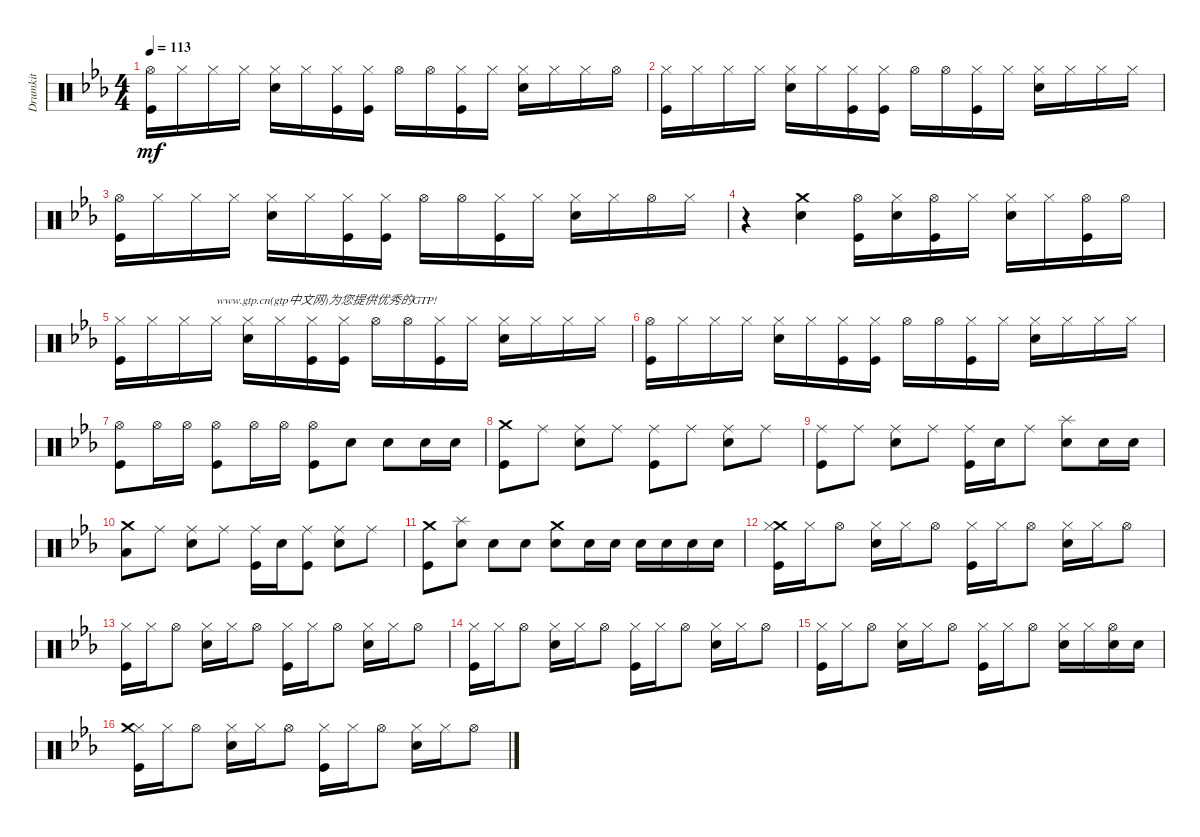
\track ("Drumkit" "Drumkit") {instrument percussion}
\staff {score}
\articulation defaults
\ts (4 4)
\tempo 113
\clef neutral
\ks eb
("Hi-Hat (open)" "Kick (hit)").16{dy mf} "Hi-Hat (closed)".16 "Hi-Hat (closed)".16 "Hi-Hat (closed)".16 ("Hi-Hat (closed)" "Snare (hit) 2").16 "Hi-Hat (closed)".16 ("Hi-Hat (closed)" "Kick (hit)").16 ("Hi-Hat (closed)" "Kick (hit)").16 "Hi-Hat (open)".16 "Hi-Hat (open)".16 ("Hi-Hat (closed)" "Kick (hit)").16 "Hi-Hat (closed)".16 ("Hi-Hat (closed)" "Snare (hit) 2").16 "Hi-Hat (closed)".16 "Hi-Hat (closed)".16 "Hi-Hat (open)".16 |
("Hi-Hat (closed)" "Kick (hit)").16 "Hi-Hat (closed)".16 "Hi-Hat (closed)".16 "Hi-Hat (closed)".16 ("Hi-Hat (closed)" "Snare (hit) 2").16 "Hi-Hat (closed)".16 ("Hi-Hat (closed)" "Kick (hit)").16 ("Hi-Hat (closed)" "Kick (hit)").16 "Hi-Hat (open)".16 "Hi-Hat (open)".16 ("Hi-Hat (closed)" "Kick (hit)").16 "Hi-Hat (closed)".16 ("Hi-Hat (closed)" "Snare (hit) 2").16 "Hi-Hat (closed)".16 "Hi-Hat (closed)".16 "Hi-Hat (closed)".16 |
("Hi-Hat (open)" "Kick (hit)").16 "Hi-Hat (closed)".16 "Hi-Hat (closed)".16 "Hi-Hat (closed)".16 ("Hi-Hat (closed)" "Snare (hit) 2").16 "Hi-Hat (closed)".16 ("Hi-Hat (closed)" "Kick (hit)").16 ("Hi-Hat (closed)" "Kick (hit)").16 "Hi-Hat (open)".16 "Hi-Hat (open)".16 ("Hi-Hat (closed)" "Kick (hit)").16 "Hi-Hat (closed)".16 ("Hi-Hat (closed)" "Snare (hit) 2").16 "Hi-Hat (closed)".16 "Hi-Hat (open)".16 "Hi-Hat (closed)".16 |
r.4 ("Snare (hit) 2" "Crash medium (hit)").4 ("Hi-Hat (open)" "Kick (hit)").16 ("Hi-Hat (closed)" "Snare (hit) 2").16 ("Hi-Hat (open)" "Kick (hit)").16 "Hi-Hat (closed)".16 ("Hi-Hat (closed)" "Snare (hit) 2").16 "Hi-Hat (closed)".16 ("Hi-Hat (open)" "Kick (hit)").16 "Hi-Hat (open)".16 |
("Hi-Hat (closed)" "Kick (hit)").16 "Hi-Hat (closed)".16 "Hi-Hat (closed)".16 "Hi-Hat (closed)".16{txt "www.gtp.cn(gtp中文网)为您提供优秀的GTP!"} ("Hi-Hat (closed)" "Snare (hit) 2").16 "Hi-Hat (closed)".16 ("Hi-Hat (closed)" "Kick (hit)").16 ("Hi-Hat (closed)" "Kick (hit)").16 "Hi-Hat (open)".16 "Hi-Hat (open)".16 ("Hi-Hat (closed)" "Kick (hit)").16 "Hi-Hat (closed)".16 ("Hi-Hat (closed)" "Snare (hit) 2").16 "Hi-Hat (closed)".16 "Hi-Hat (closed)".16 "Hi-Hat (closed)".16 |
("Hi-Hat (open)" "Kick (hit)").16 "Hi-Hat (closed)".16 "Hi-Hat (closed)".16 "Hi-Hat (closed)".16 ("Hi-Hat (closed)" "Snare (hit) 2").16 "Hi-Hat (closed)".16 ("Hi-Hat (closed)" "Kick (hit)").16 ("Hi-Hat (closed)" "Kick (hit)").16 "Hi-Hat (open)".16 "Hi-Hat (open)".16 ("Hi-Hat (closed)" "Kick (hit)").16 "Hi-Hat (closed)".16 ("Hi-Hat (closed)" "Snare (hit) 2").16 "Hi-Hat (closed)".16 "Hi-Hat (closed)".16 "Hi-Hat (closed)".16 |
("Kick (hit)" "Hi-Hat (open)").8 "Hi-Hat (open)".16 "Hi-Hat (open)".16 ("Hi-Hat (open)" "Kick (hit)").8 "Hi-Hat (open)".16 "Hi-Hat (open)".16 ("Hi-Hat (open)" "Kick (hit)").8 "Snare (hit) 2".8 "Snare (hit) 2".8 "Snare (hit) 2".16 "Snare (hit) 2".16 |
("Crash medium (hit)" "Kick (hit)").8 "Ride (middle)".8 ("Ride (middle)" "Snare (hit) 2").8 "Ride (middle)".8 ("Kick (hit)" "Ride (middle)").8 "Ride (middle)".8 ("Ride (middle)" "Snare (hit) 2").8 "Ride (middle)".8 |
("Kick (hit)" "Ride (middle)").8 "Ride (middle)".8 ("Ride (middle)" "Snare (hit) 2").8 "Ride (middle)".8 ("Kick (hit)" "Ride (middle)").16 "Snare (hit) 2".16 "Ride (middle)".8 ("Snare (hit) 2" "Splash (hit)").8 "Snare (hit) 2".16 "Snare (hit) 2".16 |
("Low Floor Tom (hit)" "Crash medium (hit)").8 "Ride (middle)".8 ("Ride (middle)" "Snare (hit) 2").8 "Ride (middle)".8 ("Kick (hit)" "Ride (middle)").16 "Snare (hit) 2".16 ("Kick (hit)" "Ride (middle)").8 ("Snare (hit) 2" "Ride (middle)").8 "Ride (middle)".8 |
("Crash medium (hit)" "Kick (hit)").8 ("Snare (hit) 2" "Splash (hit)").8 "Snare (hit) 2".8 "Snare (hit) 2".8 ("Snare (hit) 2" "Crash medium (hit)").8 "Snare (hit) 2".16 "Snare (hit) 2".16 "Snare (hit) 2".16 "Snare (hit) 2".16 "Snare (hit) 2".16 "Snare (hit) 2".16 |
("Crash medium (hit)" "Hi-Hat (closed)" "Kick (hit)").16 "Hi-Hat (closed)".16 "Hi-Hat (open)".8 ("Hi-Hat (closed)" "Snare (hit) 2").16 "Hi-Hat (closed)".16 "Hi-Hat (open)".8 ("Hi-Hat (closed)" "Kick (hit)").16 "Hi-Hat (closed)".16 "Hi-Hat (open)".8 ("Hi-Hat (closed)" "Snare (hit) 2").16 "Hi-Hat (closed)".16 "Hi-Hat (open)".8 |
("Hi-Hat (closed)" "Kick (hit)").16 "Hi-Hat (closed)".16 "Hi-Hat (open)".8 ("Hi-Hat (closed)" "Snare (hit) 2").16 "Hi-Hat (closed)".16 "Hi-Hat (open)".8 ("Hi-Hat (closed)" "Kick (hit)").16 "Hi-Hat (closed)".16 "Hi-Hat (open)".8 ("Hi-Hat (closed)" "Snare (hit) 2").16 "Hi-Hat (closed)".16 "Hi-Hat (open)".8 |
("Hi-Hat (closed)" "Kick (hit)").16 "Hi-Hat (closed)".16 "Hi-Hat (open)".8 ("Hi-Hat (closed)" "Snare (hit) 2").16 "Hi-Hat (closed)".16 "Hi-Hat (open)".8 ("Hi-Hat (closed)" "Kick (hit)").16 "Hi-Hat (closed)".16 "Hi-Hat (open)".8 ("Hi-Hat (closed)" "Snare (hit) 2").16 "Hi-Hat (closed)".16 "Hi-Hat (open)".8 |
("Hi-Hat (closed)" "Kick (hit)").16 "Hi-Hat (closed)".16 "Hi-Hat (open)".8 ("Hi-Hat (closed)" "Snare (hit) 2").16 "Hi-Hat (closed)".16 "Hi-Hat (open)".8 ("Hi-Hat (closed)" "Kick (hit)").16 "Hi-Hat (closed)".16 "Hi-Hat (open)".8 ("Hi-Hat (closed)" "Snare (hit) 2").16 "Hi-Hat (closed)".16 ("Hi-Hat (open)" "Snare (hit) 2").16 "Snare (hit) 2".16 |
("Hi-Hat (closed)" "Kick (hit)" "Crash medium (hit)").16 "Hi-Hat (closed)".16 "Hi-Hat (open)".8 ("Hi-Hat (closed)" "Snare (hit) 2").16 "Hi-Hat (closed)".16 "Hi-Hat (open)".8 ("Hi-Hat (closed)" "Kick (hit)").16 "Hi-Hat (closed)".16 "Hi-Hat (open)".8 ("Hi-Hat (closed)" "Snare (hit) 2").16 "Hi-Hat (closed)".16 "Hi-Hat (open)".8
